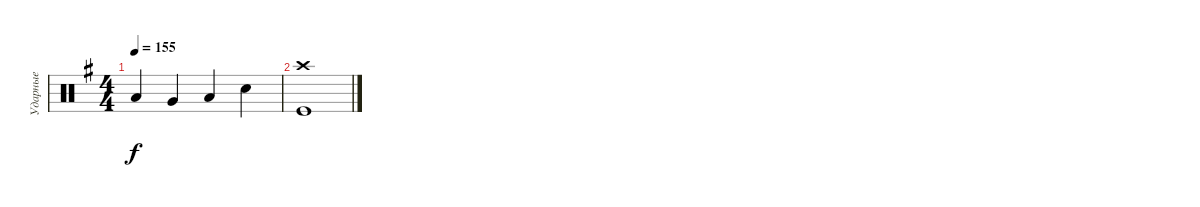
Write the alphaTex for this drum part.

\track ("Ударные" "Ударные") {instrument percussion}
\staff {score}
\articulation defaults
\ts (4 4)
\tempo 155
\clef neutral
\ks eminor "Low Tom (hit)".4{dy f} "Very Low Tom (hit)".4 "Low Floor Tom (hit)".4 "Snare (hit) 2".4
|
("Crash high (hit)" "Kick (hit)").1
